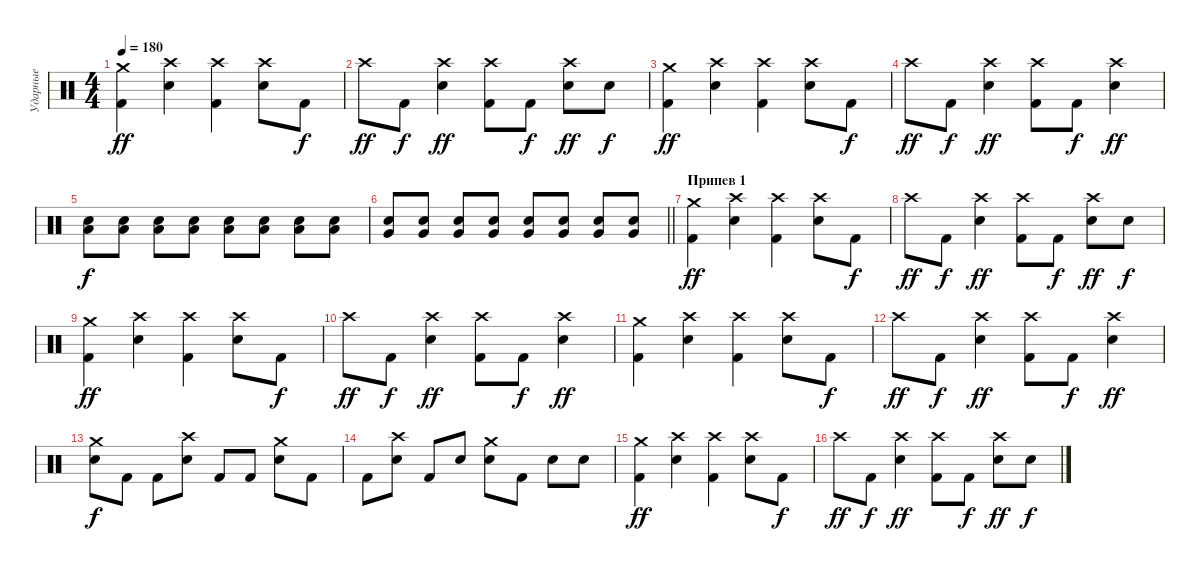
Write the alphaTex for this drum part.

\track ("Ударные" "Ударные") {instrument percussion}
\staff {score}
\articulation defaults
\ts (4 4)
\tempo 180
\clef neutral
\ks c
("Crash medium (hit)" "Kick (hit) 2").4{dy ff} ("Crash high (hit)" "Snare (hit) 2").4 ("Crash high (hit)" "Kick (hit) 2").4 ("Crash high (hit)" "Snare (hit) 2").8 "Kick (hit) 2".8{dy f} |
"Crash high (hit)".8{dy ff} "Kick (hit) 2".8{dy f} ("Crash high (hit)" "Snare (hit) 2").4{dy ff} ("Crash high (hit)" "Kick (hit) 2").8 "Kick (hit) 2".8{dy f} ("Crash high (hit)" "Snare (hit) 2").8{dy ff} "Snare (hit) 2".8{dy f} |
("Crash medium (hit)" "Kick (hit) 2").4{dy ff} ("Crash high (hit)" "Snare (hit) 2").4 ("Crash high (hit)" "Kick (hit) 2").4 ("Crash high (hit)" "Snare (hit) 2").8 "Kick (hit) 2".8{dy f} |
"Crash high (hit)".8{dy ff} "Kick (hit) 2".8{dy f} ("Crash high (hit)" "Snare (hit) 2").4{dy ff} ("Crash high (hit)" "Kick (hit) 2").8 "Kick (hit) 2".8{dy f} ("Crash high (hit)" "Snare (hit) 2").4{dy ff} |
("Low Tom (hit)" "Snare (hit) 2").8{dy f} ("Low Tom (hit)" "Snare (hit) 2").8 ("Low Tom (hit)" "Snare (hit) 2").8 ("Low Tom (hit)" "Snare (hit) 2").8 ("Low Tom (hit)" "Snare (hit) 2").8 ("Low Tom (hit)" "Snare (hit) 2").8 ("Low Tom (hit)" "Snare (hit) 2").8 ("Low Tom (hit)" "Snare (hit) 2").8 |
\barLineRight lightlight
("Snare (hit) 2" "Very Low Tom (hit)").8 ("Snare (hit) 2" "Very Low Tom (hit)").8 ("Snare (hit) 2" "Very Low Tom (hit)").8 ("Snare (hit) 2" "Very Low Tom (hit)").8 ("Snare (hit) 2" "Very Low Tom (hit)").8 ("Snare (hit) 2" "Very Low Tom (hit)").8 ("Snare (hit) 2" "Very Low Tom (hit)").8 ("Snare (hit) 2" "Very Low Tom (hit)").8 |
\section ("" "Припев 1")
("Crash medium (hit)" "Kick (hit) 2").4{dy ff} ("Crash high (hit)" "Snare (hit) 2").4 ("Crash high (hit)" "Kick (hit) 2").4 ("Crash high (hit)" "Snare (hit) 2").8 "Kick (hit) 2".8{dy f} |
"Crash high (hit)".8{dy ff} "Kick (hit) 2".8{dy f} ("Crash high (hit)" "Snare (hit) 2").4{dy ff} ("Crash high (hit)" "Kick (hit) 2").8 "Kick (hit) 2".8{dy f} ("Crash high (hit)" "Snare (hit) 2").8{dy ff} "Snare (hit) 2".8{dy f} |
("Crash medium (hit)" "Kick (hit) 2").4{dy ff} ("Crash high (hit)" "Snare (hit) 2").4 ("Crash high (hit)" "Kick (hit) 2").4 ("Crash high (hit)" "Snare (hit) 2").8 "Kick (hit) 2".8{dy f} |
"Crash high (hit)".8{dy ff} "Kick (hit) 2".8{dy f} ("Crash high (hit)" "Snare (hit) 2").4{dy ff} ("Crash high (hit)" "Kick (hit) 2").8 "Kick (hit) 2".8{dy f} ("Crash high (hit)" "Snare (hit) 2").4{dy ff} |
("Crash medium (hit)" "Kick (hit) 2").4 ("Crash high (hit)" "Snare (hit) 2").4 ("Crash high (hit)" "Kick (hit) 2").4 ("Crash high (hit)" "Snare (hit) 2").8 "Kick (hit) 2".8{dy f} |
"Crash high (hit)".8{dy ff} "Kick (hit) 2".8{dy f} ("Crash high (hit)" "Snare (hit) 2").4{dy ff} ("Crash high (hit)" "Kick (hit) 2").8 "Kick (hit) 2".8{dy f} ("Crash high (hit)" "Snare (hit) 2").4{dy ff} |
("Crash medium (hit)" "Snare (hit) 2").8{dy f} "Kick (hit) 2".8 "Kick (hit) 2".8 ("Crash high (hit)" "Snare (hit) 2").8 "Kick (hit) 2".8 "Kick (hit) 2".8 ("Crash medium (hit)" "Snare (hit) 2").8 "Kick (hit) 2".8 |
"Kick (hit) 2".8 ("Crash high (hit)" "Snare (hit) 2").8 "Kick (hit) 2".8 "Snare (hit)".8 ("Crash medium (hit)" "Snare (hit) 2").8 "Kick (hit) 2".8 "Snare (hit) 2".8 "Snare (hit) 2".8 |
("Crash medium (hit)" "Kick (hit) 2").4{dy ff} ("Crash high (hit)" "Snare (hit) 2").4 ("Crash high (hit)" "Kick (hit) 2").4 ("Crash high (hit)" "Snare (hit) 2").8 "Kick (hit) 2".8{dy f} |
"Crash high (hit)".8{dy ff} "Kick (hit) 2".8{dy f} ("Crash high (hit)" "Snare (hit) 2").4{dy ff} ("Crash high (hit)" "Kick (hit) 2").8 "Kick (hit) 2".8{dy f} ("Crash high (hit)" "Snare (hit) 2").8{dy ff} "Snare (hit) 2".8{dy f}
